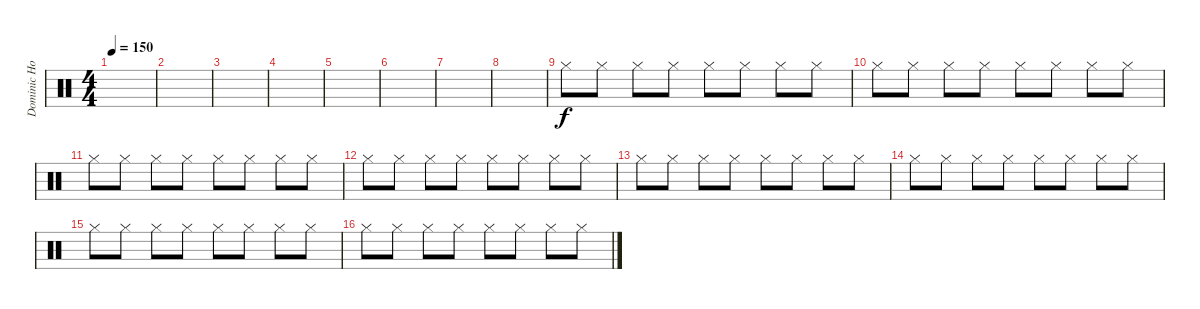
\track ("Dominic Howard" "Dominic Ho") {instrument percussion}
\staff {score}
\articulation defaults
\ts (4 4)
\tempo 150
\clef neutral
\ks c
|
|
|
|
|
|
|
|
"Hi-Hat (closed)".8 "Hi-Hat (closed)".8 "Hi-Hat (closed)".8 "Hi-Hat (closed)".8 "Hi-Hat (closed)".8 "Hi-Hat (closed)".8 "Hi-Hat (closed)".8 "Hi-Hat (closed)".8 |
"Hi-Hat (closed)".8 "Hi-Hat (closed)".8 "Hi-Hat (closed)".8 "Hi-Hat (closed)".8 "Hi-Hat (closed)".8 "Hi-Hat (closed)".8 "Hi-Hat (closed)".8 "Hi-Hat (closed)".8 |
"Hi-Hat (closed)".8 "Hi-Hat (closed)".8 "Hi-Hat (closed)".8 "Hi-Hat (closed)".8 "Hi-Hat (closed)".8 "Hi-Hat (closed)".8 "Hi-Hat (closed)".8 "Hi-Hat (closed)".8 |
"Hi-Hat (closed)".8 "Hi-Hat (closed)".8 "Hi-Hat (closed)".8 "Hi-Hat (closed)".8 "Hi-Hat (closed)".8 "Hi-Hat (closed)".8 "Hi-Hat (closed)".8 "Hi-Hat (closed)".8 |
"Hi-Hat (closed)".8 "Hi-Hat (closed)".8 "Hi-Hat (closed)".8 "Hi-Hat (closed)".8 "Hi-Hat (closed)".8 "Hi-Hat (closed)".8 "Hi-Hat (closed)".8 "Hi-Hat (closed)".8 |
"Hi-Hat (closed)".8 "Hi-Hat (closed)".8 "Hi-Hat (closed)".8 "Hi-Hat (closed)".8 "Hi-Hat (closed)".8 "Hi-Hat (closed)".8 "Hi-Hat (closed)".8 "Hi-Hat (closed)".8 |
"Hi-Hat (closed)".8 "Hi-Hat (closed)".8 "Hi-Hat (closed)".8 "Hi-Hat (closed)".8 "Hi-Hat (closed)".8 "Hi-Hat (closed)".8 "Hi-Hat (closed)".8 "Hi-Hat (closed)".8 |
"Hi-Hat (closed)".8 "Hi-Hat (closed)".8 "Hi-Hat (closed)".8 "Hi-Hat (closed)".8 "Hi-Hat (closed)".8 "Hi-Hat (closed)".8 "Hi-Hat (closed)".8 "Hi-Hat (closed)".8
